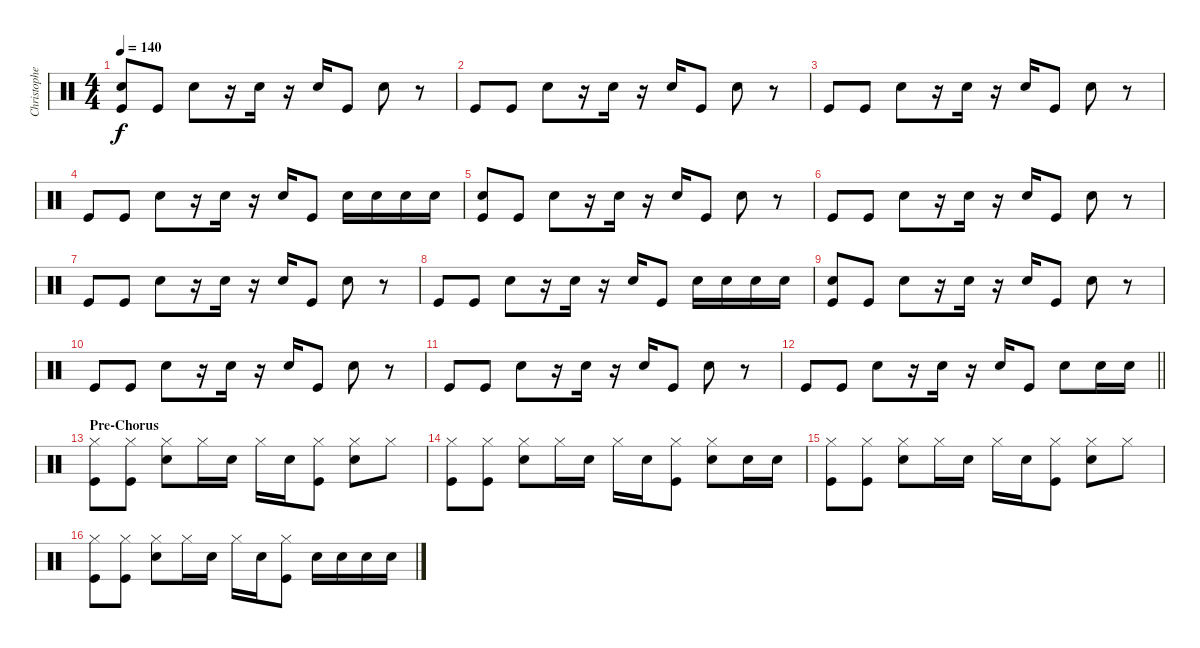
\track ("Christopher - Drums" "Christophe") {instrument percussion}
\staff {score}
\articulation defaults
\ts (4 4)
\tempo 140
\clef neutral
\ks c
("Snare (hit) 2" "Kick (hit)").8{dy f} "Kick (hit)".8 "Snare (hit) 2".8 r.16 "Snare (hit) 2".16 r.16 "Snare (hit) 2".16 "Kick (hit)".8 "Snare (hit) 2".8 r.8 |
"Kick (hit)".8 "Kick (hit)".8 "Snare (hit) 2".8 r.16 "Snare (hit) 2".16 r.16 "Snare (hit) 2".16 "Kick (hit)".8 "Snare (hit) 2".8 r.8 |
"Kick (hit)".8 "Kick (hit)".8 "Snare (hit) 2".8 r.16 "Snare (hit) 2".16 r.16 "Snare (hit) 2".16 "Kick (hit)".8 "Snare (hit) 2".8 r.8 |
"Kick (hit)".8 "Kick (hit)".8 "Snare (hit) 2".8 r.16 "Snare (hit) 2".16 r.16 "Snare (hit) 2".16 "Kick (hit)".8 "Snare (hit) 2".16 "Snare (hit) 2".16 "Snare (hit) 2".16 "Snare (hit) 2".16 |
("Snare (hit) 2" "Kick (hit)").8 "Kick (hit)".8 "Snare (hit) 2".8 r.16 "Snare (hit) 2".16 r.16 "Snare (hit) 2".16 "Kick (hit)".8 "Snare (hit) 2".8 r.8 |
"Kick (hit)".8 "Kick (hit)".8 "Snare (hit) 2".8 r.16 "Snare (hit) 2".16 r.16 "Snare (hit) 2".16 "Kick (hit)".8 "Snare (hit) 2".8 r.8 |
"Kick (hit)".8 "Kick (hit)".8 "Snare (hit) 2".8 r.16 "Snare (hit) 2".16 r.16 "Snare (hit) 2".16 "Kick (hit)".8 "Snare (hit) 2".8 r.8 |
"Kick (hit)".8 "Kick (hit)".8 "Snare (hit) 2".8 r.16 "Snare (hit) 2".16 r.16 "Snare (hit) 2".16 "Kick (hit)".8 "Snare (hit) 2".16 "Snare (hit) 2".16 "Snare (hit) 2".16 "Snare (hit) 2".16 |
("Snare (hit) 2" "Kick (hit)").8 "Kick (hit)".8 "Snare (hit) 2".8 r.16 "Snare (hit) 2".16 r.16 "Snare (hit) 2".16 "Kick (hit)".8 "Snare (hit) 2".8 r.8 |
"Kick (hit)".8 "Kick (hit)".8 "Snare (hit) 2".8 r.16 "Snare (hit) 2".16 r.16 "Snare (hit) 2".16 "Kick (hit)".8 "Snare (hit) 2".8 r.8 |
"Kick (hit)".8 "Kick (hit)".8 "Snare (hit) 2".8 r.16 "Snare (hit) 2".16 r.16 "Snare (hit) 2".16 "Kick (hit)".8 "Snare (hit) 2".8 r.8 |
\barLineRight lightlight "Kick (hit)".8 "Kick (hit)".8 "Snare (hit) 2".8
r.16 "Snare (hit) 2".16 r.16 "Snare (hit) 2".16 "Kick (hit)".8 "Snare (hit) 2".8 "Snare (hit) 2".16 "Snare (hit) 2".16 |
\section ("" "Pre-Chorus")
("Hi-Hat (closed)" "Kick (hit)").8 ("Hi-Hat (closed)" "Kick (hit)").8 ("Hi-Hat (closed)" "Snare (hit) 2").8 "Hi-Hat (closed)".16 "Snare (hit) 2".16 "Hi-Hat (closed)".16 "Snare (hit) 2".16 ("Hi-Hat (closed)" "Kick (hit)").8 ("Hi-Hat (closed)" "Snare (hit) 2").8 "Hi-Hat (closed)".8 |
("Hi-Hat (closed)" "Kick (hit)").8 ("Hi-Hat (closed)" "Kick (hit)").8 ("Hi-Hat (closed)" "Snare (hit) 2").8 "Hi-Hat (closed)".16 "Snare (hit) 2".16 "Hi-Hat (closed)".16 "Snare (hit) 2".16 ("Hi-Hat (closed)" "Kick (hit)").8 ("Hi-Hat (closed)" "Snare (hit) 2").8 "Snare (hit) 2".16 "Snare (hit) 2".16 |
("Hi-Hat (closed)" "Kick (hit)").8 ("Hi-Hat (closed)" "Kick (hit)").8 ("Hi-Hat (closed)" "Snare (hit) 2").8 "Hi-Hat (closed)".16 "Snare (hit) 2".16 "Hi-Hat (closed)".16 "Snare (hit) 2".16 ("Hi-Hat (closed)" "Kick (hit)").8 ("Hi-Hat (closed)" "Snare (hit) 2").8 "Hi-Hat (closed)".8 |
("Hi-Hat (closed)" "Kick (hit)").8 ("Hi-Hat (closed)" "Kick (hit)").8 ("Hi-Hat (closed)" "Snare (hit) 2").8 "Hi-Hat (closed)".16 "Snare (hit) 2".16 "Hi-Hat (closed)".16 "Snare (hit) 2".16 ("Hi-Hat (closed)" "Kick (hit)").8 "Snare (hit) 2".16 "Snare (hit) 2".16 "Snare (hit) 2".16 "Snare (hit) 2".16
